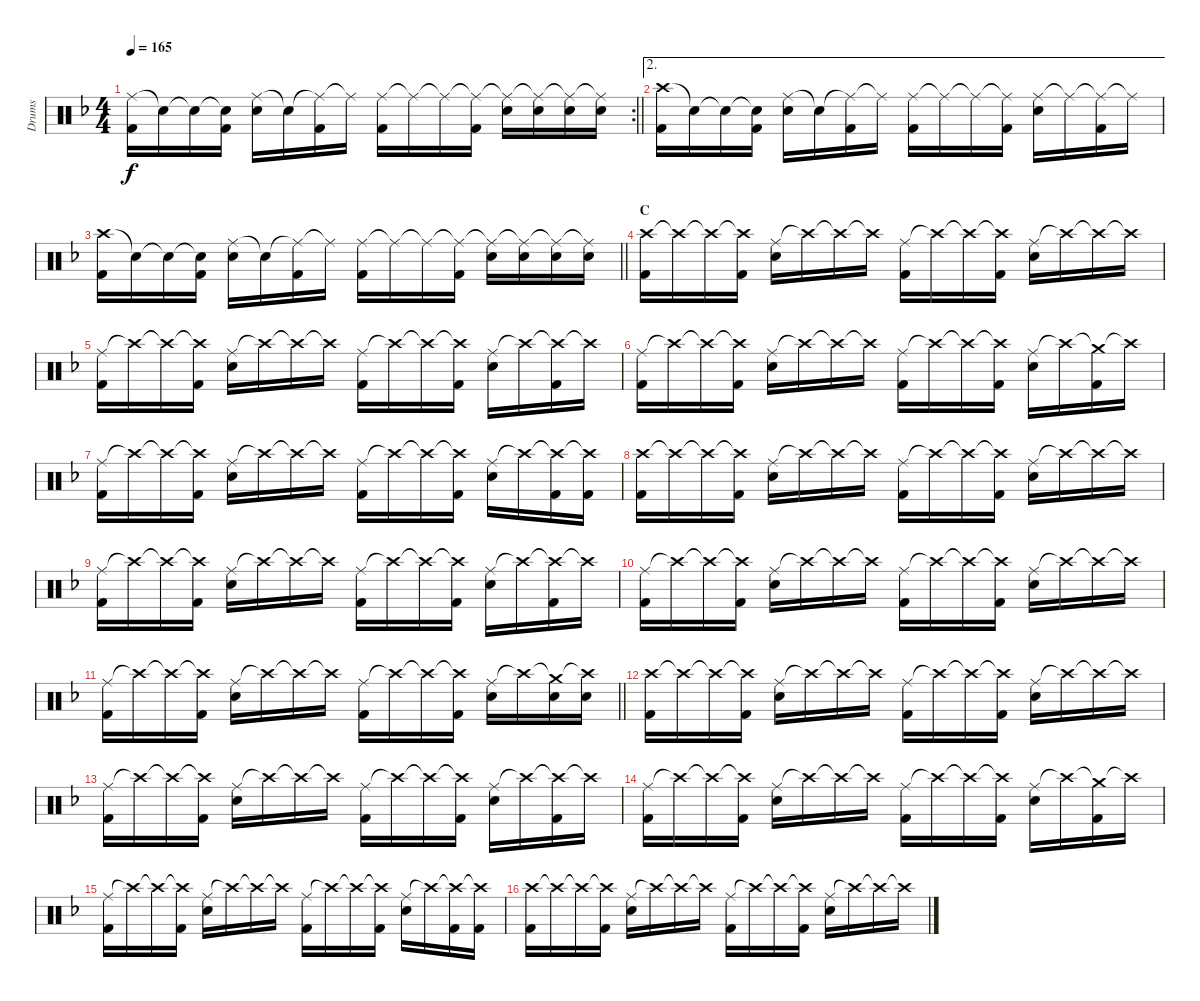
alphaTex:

\track ("Drums" "Drums") {instrument percussion}
\staff {score}
\articulation defaults
\rc 2
\ts (4 4)
\tempo 165
\clef neutral
\barLineRight lightlight
\ks f
("Ride (middle)" "Kick (hit) 2").16{dy f} "Snare (hit)"{t}.16 "Snare (hit)"{t}.16 ("Snare (hit)"{t} "Kick (hit) 2").16 ("Ride (middle)" "Snare (hit) 2").16 "Snare (hit)"{t}.16 ("Ride (middle)"{t} "Kick (hit) 2").16 "Ride (middle)"{t}.16 ("Ride (middle)" "Kick (hit) 2").16 "Ride (middle)"{t}.16 "Ride (middle)"{t}.16 ("Ride (middle)"{t} "Kick (hit) 2").16 ("Ride (middle)"{t} "Snare (hit) 2").16 ("Ride (middle)"{t} "Snare (hit) 2").16 ("Ride (middle)"{t} "Snare (hit) 2").16 ("Ride (middle)"{t} "Snare (hit) 2").16 |
\ae 2
("Crash high (hit)" "Kick (hit) 2").16 "Snare (hit)"{t}.16 "Snare (hit)"{t}.16 ("Snare (hit)"{t} "Kick (hit) 2").16 ("Ride (middle)" "Snare (hit) 2").16 "Snare (hit)"{t}.16 ("Ride (middle)"{t} "Kick (hit) 2").16 "Ride (middle)"{t}.16 ("Ride (middle)" "Kick (hit) 2").16 "Ride (middle)"{t}.16 "Ride (middle)"{t}.16 ("Ride (middle)"{t} "Kick (hit) 2").16 ("Ride (middle)" "Snare (hit) 2").16 "Ride (middle)"{t}.16 ("Ride (middle)"{t} "Kick (hit) 2").16 "Ride (middle)"{t}.16 |
\barLineRight lightlight
("Crash high (hit)" "Kick (hit) 2").16 "Snare (hit)"{t}.16 "Snare (hit)"{t}.16 ("Snare (hit)"{t} "Kick (hit) 2").16 ("Ride (middle)" "Snare (hit) 2").16 "Snare (hit)"{t}.16 ("Ride (middle)"{t} "Kick (hit) 2").16 "Ride (middle)"{t}.16 ("Ride (middle)" "Kick (hit) 2").16 "Ride (middle)"{t}.16 "Ride (middle)"{t}.16 ("Ride (middle)"{t} "Kick (hit) 2").16 ("Ride (middle)"{t} "Snare (hit) 2").16 ("Ride (middle)"{t} "Snare (hit) 2").16 ("Ride (middle)"{t} "Snare (hit) 2").16 ("Ride (middle)"{t} "Snare (hit) 2").16 |
\section ("" "C")
("Crash high (hit)" "Kick (hit) 2").16 "Crash high (hit)"{t}.16 "Crash high (hit)"{t}.16 ("Crash high (hit)"{t} "Kick (hit) 2").16 ("Ride (middle)" "Snare (hit) 2").16 "Crash high (hit)"{t}.16 "Crash high (hit)"{t}.16 "Crash high (hit)"{t}.16 ("Ride (middle)" "Kick (hit) 2").16 "Crash high (hit)"{t}.16 "Crash high (hit)"{t}.16 ("Crash high (hit)"{t} "Kick (hit) 2").16 ("Ride (middle)" "Snare (hit) 2").16 "Crash high (hit)"{t}.16 "Crash high (hit)"{t}.16 "Crash high (hit)"{t}.16 |
("Ride (middle)" "Kick (hit) 2").16 "Crash high (hit)"{t}.16 "Crash high (hit)"{t}.16 ("Crash high (hit)"{t} "Kick (hit) 2").16 ("Ride (middle)" "Snare (hit) 2").16 "Crash high (hit)"{t}.16 "Crash high (hit)"{t}.16 "Crash high (hit)"{t}.16 ("Ride (middle)" "Kick (hit) 2").16 "Crash high (hit)"{t}.16 "Crash high (hit)"{t}.16 ("Crash high (hit)"{t} "Kick (hit) 2").16 ("Ride (middle)" "Snare (hit) 2").16 "Crash high (hit)"{t}.16 ("Crash high (hit)"{t} "Kick (hit) 2").16 "Crash high (hit)"{t}.16 |
("Ride (middle)" "Kick (hit) 2").16 "Crash high (hit)"{t}.16 "Crash high (hit)"{t}.16 ("Crash high (hit)"{t} "Kick (hit) 2").16 ("Ride (middle)" "Snare (hit) 2").16 "Crash high (hit)"{t}.16 "Crash high (hit)"{t}.16 "Crash high (hit)"{t}.16 ("Ride (middle)" "Kick (hit) 2").16 "Crash high (hit)"{t}.16 "Crash high (hit)"{t}.16 ("Crash high (hit)"{t} "Kick (hit) 2").16 ("Ride (middle)" "Snare (hit) 2").16 "Crash high (hit)"{t}.16 ("Crash medium (hit)"{t} "Kick (hit) 2").16 "Crash high (hit)"{t}.16 |
("Ride (middle)" "Kick (hit) 2").16 "Crash high (hit)"{t}.16 "Crash high (hit)"{t}.16 ("Crash high (hit)"{t} "Kick (hit) 2").16 ("Ride (middle)" "Snare (hit) 2").16 "Crash high (hit)"{t}.16 "Crash high (hit)"{t}.16 "Crash high (hit)"{t}.16 ("Ride (middle)" "Kick (hit) 2").16 "Crash high (hit)"{t}.16 "Crash high (hit)"{t}.16 ("Crash high (hit)"{t} "Kick (hit) 2").16 ("Ride (middle)" "Snare (hit) 2").16 "Crash high (hit)"{t}.16 ("Crash high (hit)"{t} "Kick (hit) 2").16 ("Crash high (hit)"{t} "Kick (hit) 2").16 |
("Crash high (hit)" "Kick (hit) 2").16 "Crash high (hit)"{t}.16 "Crash high (hit)"{t}.16 ("Crash high (hit)"{t} "Kick (hit) 2").16 ("Ride (middle)" "Snare (hit) 2").16 "Crash high (hit)"{t}.16 "Crash high (hit)"{t}.16 "Crash high (hit)"{t}.16 ("Ride (middle)" "Kick (hit) 2").16 "Crash high (hit)"{t}.16 "Crash high (hit)"{t}.16 ("Crash high (hit)"{t} "Kick (hit) 2").16 ("Ride (middle)" "Snare (hit) 2").16 "Crash high (hit)"{t}.16 "Crash high (hit)"{t}.16 "Crash high (hit)"{t}.16 |
("Ride (middle)" "Kick (hit) 2").16 "Crash high (hit)"{t}.16 "Crash high (hit)"{t}.16 ("Crash high (hit)"{t} "Kick (hit) 2").16 ("Ride (middle)" "Snare (hit) 2").16 "Crash high (hit)"{t}.16 "Crash high (hit)"{t}.16 "Crash high (hit)"{t}.16 ("Ride (middle)" "Kick (hit) 2").16 "Crash high (hit)"{t}.16 "Crash high (hit)"{t}.16 ("Crash high (hit)"{t} "Kick (hit) 2").16 ("Ride (middle)" "Snare (hit) 2").16 "Crash high (hit)"{t}.16 ("Crash high (hit)"{t} "Kick (hit) 2").16 "Crash high (hit)"{t}.16 |
("Ride (middle)" "Kick (hit) 2").16 "Crash high (hit)"{t}.16 "Crash high (hit)"{t}.16 ("Crash high (hit)"{t} "Kick (hit) 2").16 ("Ride (middle)" "Snare (hit) 2").16 "Crash high (hit)"{t}.16 "Crash high (hit)"{t}.16 "Crash high (hit)"{t}.16 ("Ride (middle)" "Kick (hit) 2").16 "Crash high (hit)"{t}.16 "Crash high (hit)"{t}.16 ("Crash high (hit)"{t} "Kick (hit) 2").16 ("Ride (middle)" "Snare (hit) 2").16 "Crash high (hit)"{t}.16 "Crash high (hit)"{t}.16 "Crash high (hit)"{t}.16 |
\barLineRight lightlight
("Ride (middle)" "Kick (hit) 2").16 "Crash high (hit)"{t}.16 "Crash high (hit)"{t}.16 ("Crash high (hit)"{t} "Kick (hit) 2").16 ("Ride (middle)" "Snare (hit) 2").16 "Crash high (hit)"{t}.16 "Crash high (hit)"{t}.16 "Crash high (hit)"{t}.16 ("Ride (middle)" "Kick (hit) 2").16 "Crash high (hit)"{t}.16 "Crash high (hit)"{t}.16 ("Crash high (hit)"{t} "Kick (hit) 2").16 ("Ride (middle)" "Snare (hit) 2").16 "Crash high (hit)"{t}.16 ("Crash medium (hit)"{t} "Snare (hit) 2").16 ("Crash high (hit)"{t} "Snare (hit) 2").16 |
\section ("" "")
("Crash high (hit)" "Kick (hit) 2").16 "Crash high (hit)"{t}.16 "Crash high (hit)"{t}.16 ("Crash high (hit)"{t} "Kick (hit) 2").16 ("Ride (middle)" "Snare (hit) 2").16 "Crash high (hit)"{t}.16 "Crash high (hit)"{t}.16 "Crash high (hit)"{t}.16 ("Ride (middle)" "Kick (hit) 2").16 "Crash high (hit)"{t}.16 "Crash high (hit)"{t}.16 ("Crash high (hit)"{t} "Kick (hit) 2").16 ("Ride (middle)" "Snare (hit) 2").16 "Crash high (hit)"{t}.16 "Crash high (hit)"{t}.16 "Crash high (hit)"{t}.16 |
("Ride (middle)" "Kick (hit) 2").16 "Crash high (hit)"{t}.16 "Crash high (hit)"{t}.16 ("Crash high (hit)"{t} "Kick (hit) 2").16 ("Ride (middle)" "Snare (hit) 2").16 "Crash high (hit)"{t}.16 "Crash high (hit)"{t}.16 "Crash high (hit)"{t}.16 ("Ride (middle)" "Kick (hit) 2").16 "Crash high (hit)"{t}.16 "Crash high (hit)"{t}.16 ("Crash high (hit)"{t} "Kick (hit) 2").16 ("Ride (middle)" "Snare (hit) 2").16 "Crash high (hit)"{t}.16 ("Crash high (hit)"{t} "Kick (hit) 2").16 "Crash high (hit)"{t}.16 |
("Ride (middle)" "Kick (hit) 2").16 "Crash high (hit)"{t}.16 "Crash high (hit)"{t}.16 ("Crash high (hit)"{t} "Kick (hit) 2").16 ("Ride (middle)" "Snare (hit) 2").16 "Crash high (hit)"{t}.16 "Crash high (hit)"{t}.16 "Crash high (hit)"{t}.16 ("Ride (middle)" "Kick (hit) 2").16 "Crash high (hit)"{t}.16 "Crash high (hit)"{t}.16 ("Crash high (hit)"{t} "Kick (hit) 2").16 ("Ride (middle)" "Snare (hit) 2").16 "Crash high (hit)"{t}.16 ("Crash medium (hit)"{t} "Kick (hit) 2").16 "Crash high (hit)"{t}.16 |
("Ride (middle)" "Kick (hit) 2").16 "Crash high (hit)"{t}.16 "Crash high (hit)"{t}.16 ("Crash high (hit)"{t} "Kick (hit) 2").16 ("Ride (middle)" "Snare (hit) 2").16 "Crash high (hit)"{t}.16 "Crash high (hit)"{t}.16 "Crash high (hit)"{t}.16 ("Ride (middle)" "Kick (hit) 2").16 "Crash high (hit)"{t}.16 "Crash high (hit)"{t}.16 ("Crash high (hit)"{t} "Kick (hit) 2").16 ("Ride (middle)" "Snare (hit) 2").16 "Crash high (hit)"{t}.16 ("Crash high (hit)"{t} "Kick (hit) 2").16 ("Crash high (hit)"{t} "Kick (hit) 2").16 |
("Crash high (hit)" "Kick (hit) 2").16 "Crash high (hit)"{t}.16 "Crash high (hit)"{t}.16 ("Crash high (hit)"{t} "Kick (hit) 2").16 ("Ride (middle)" "Snare (hit) 2").16 "Crash high (hit)"{t}.16 "Crash high (hit)"{t}.16 "Crash high (hit)"{t}.16 ("Ride (middle)" "Kick (hit) 2").16 "Crash high (hit)"{t}.16 "Crash high (hit)"{t}.16 ("Crash high (hit)"{t} "Kick (hit) 2").16 ("Ride (middle)" "Snare (hit) 2").16 "Crash high (hit)"{t}.16 "Crash high (hit)"{t}.16 "Crash high (hit)"{t}.16
